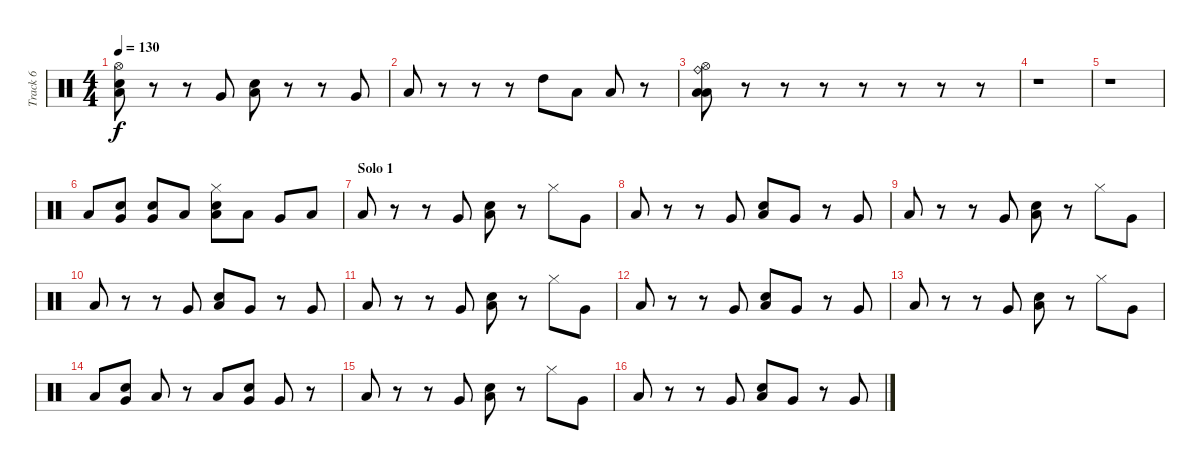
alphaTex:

\track ("Track 6" "Track 6") {instrument percussion}
\staff {score}
\articulation defaults
\ts (4 4)
\tempo 130
\clef neutral
\ks c
("Low Floor Tom (hit)" "Snare (hit) 2" "Hi-Hat (open)").8{dy f} r.8 r.8 "Very Low Tom (hit)".8 ("Low Tom (hit)" "Snare (hit) 2").8 r.8 r.8 "Very Low Tom (hit)".8 |
"Low Floor Tom (hit)".8 r.8 r.8 r.8 "High Tom (hit)".8 "Low Tom (hit)".8 "Low Floor Tom (hit)".8 r.8 |
("Low Floor Tom (hit)" "Low Tom (hit)" "Ride (bell)" "Hi-Hat (open)").8 r.8 r.8 r.8 r.8 r.8 r.8 r.8 |
r.1 |
r.1 |
"Low Tom (hit)".8 ("Very Low Tom (hit)" "Snare (hit) 2").8 ("Very Low Tom (hit)" "Snare (hit) 2").8 "Low Floor Tom (hit)".8 ("Low Tom (hit)" "Snare (hit) 2" "Hi-Hat (closed)").8 "Low Tom (hit)".8 "Very Low Tom (hit)".8 "Low Floor Tom (hit)".8 |
\section ("" "Solo 1")
"Low Floor Tom (hit)".8 r.8 r.8 "Very Low Tom (hit)".8 ("Low Tom (hit)" "Snare (hit) 2").8 r.8 "Hi-Hat (closed)".8 "Very Low Tom (hit)".8 |
"Low Floor Tom (hit)".8 r.8 r.8 "Very Low Tom (hit)".8 ("Low Tom (hit)" "Snare (hit) 2").8 "Very Low Tom (hit)".8 r.8 "Very Low Tom (hit)".8 |
"Low Floor Tom (hit)".8 r.8 r.8 "Very Low Tom (hit)".8 ("Low Tom (hit)" "Snare (hit) 2").8 r.8 "Hi-Hat (closed)".8 "Very Low Tom (hit)".8 |
"Low Floor Tom (hit)".8 r.8 r.8 "Very Low Tom (hit)".8 ("Low Tom (hit)" "Snare (hit) 2").8 "Very Low Tom (hit)".8 r.8 "Very Low Tom (hit)".8 |
"Low Floor Tom (hit)".8 r.8 r.8 "Very Low Tom (hit)".8 ("Low Tom (hit)" "Snare (hit) 2").8 r.8 "Hi-Hat (closed)".8 "Very Low Tom (hit)".8 |
"Low Floor Tom (hit)".8 r.8 r.8 "Very Low Tom (hit)".8 ("Low Tom (hit)" "Snare (hit) 2").8 "Very Low Tom (hit)".8 r.8 "Very Low Tom (hit)".8 |
"Low Floor Tom (hit)".8 r.8 r.8 "Very Low Tom (hit)".8 ("Low Tom (hit)" "Snare (hit) 2").8 r.8 "Hi-Hat (closed)".8 "Very Low Tom (hit)".8 |
"Low Floor Tom (hit)".8 ("Very Low Tom (hit)" "Snare (hit) 2").8 "Low Floor Tom (hit)".8 r.8 "Low Tom (hit)".8 ("Very Low Tom (hit)" "Snare (hit) 2").8 "Very Low Tom (hit)".8 r.8 |
"Low Floor Tom (hit)".8 r.8 r.8 "Very Low Tom (hit)".8 ("Low Tom (hit)" "Snare (hit) 2").8 r.8 "Hi-Hat (closed)".8 "Very Low Tom (hit)".8 |
"Low Floor Tom (hit)".8 r.8 r.8 "Very Low Tom (hit)".8 ("Low Tom (hit)" "Snare (hit) 2").8 "Very Low Tom (hit)".8 r.8 "Very Low Tom (hit)".8
